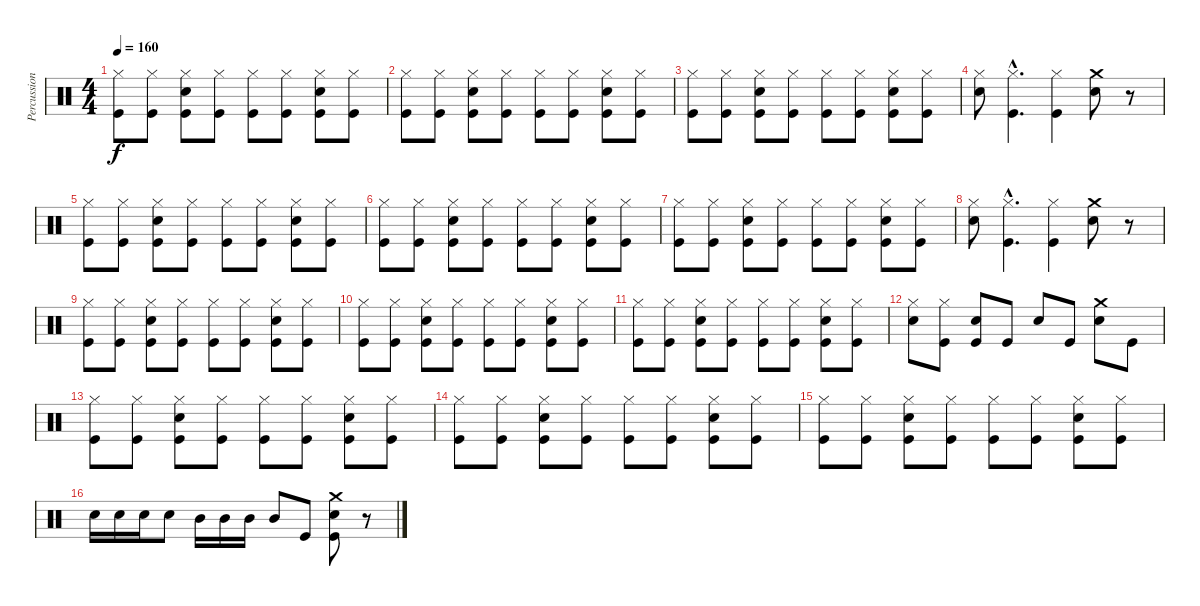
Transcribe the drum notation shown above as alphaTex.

\track ("Percussion" "Percussion") {instrument percussion}
\staff {score}
\articulation defaults
\ts (4 4)
\tempo 160
\clef neutral
\ks c
("Hi-Hat (closed)" "Kick (hit)").8{dy f} ("Hi-Hat (closed)" "Kick (hit)").8 ("Hi-Hat (closed)" "Snare (hit) 2" "Kick (hit)").8 ("Hi-Hat (closed)" "Kick (hit)").8 ("Hi-Hat (closed)" "Kick (hit)").8 ("Hi-Hat (closed)" "Kick (hit)").8 ("Hi-Hat (closed)" "Snare (hit) 2" "Kick (hit)").8 ("Hi-Hat (closed)" "Kick (hit)").8 |
("Hi-Hat (closed)" "Kick (hit)").8 ("Hi-Hat (closed)" "Kick (hit)").8 ("Hi-Hat (closed)" "Snare (hit) 2" "Kick (hit)").8 ("Hi-Hat (closed)" "Kick (hit)").8 ("Hi-Hat (closed)" "Kick (hit)").8 ("Hi-Hat (closed)" "Kick (hit)").8 ("Hi-Hat (closed)" "Snare (hit) 2" "Kick (hit)").8 ("Hi-Hat (closed)" "Kick (hit)").8 |
("Hi-Hat (closed)" "Kick (hit)").8 ("Hi-Hat (closed)" "Kick (hit)").8 ("Hi-Hat (closed)" "Snare (hit) 2" "Kick (hit)").8 ("Hi-Hat (closed)" "Kick (hit)").8 ("Hi-Hat (closed)" "Kick (hit)").8 ("Hi-Hat (closed)" "Kick (hit)").8 ("Hi-Hat (closed)" "Snare (hit) 2" "Kick (hit)").8 ("Hi-Hat (closed)" "Kick (hit)").8 |
("Hi-Hat (closed)" "Snare (hit) 2").8 ("Hi-Hat (closed)"{hac} "Kick (hit)"{hac}).4{d} ("Hi-Hat (closed)" "Kick (hit)").4 ("Crash medium (hit)" "Snare (hit) 2").8 r.8 |
("Hi-Hat (closed)" "Kick (hit)").8 ("Hi-Hat (closed)" "Kick (hit)").8 ("Hi-Hat (closed)" "Snare (hit) 2" "Kick (hit)").8 ("Hi-Hat (closed)" "Kick (hit)").8 ("Hi-Hat (closed)" "Kick (hit)").8 ("Hi-Hat (closed)" "Kick (hit)").8 ("Hi-Hat (closed)" "Snare (hit) 2" "Kick (hit)").8 ("Hi-Hat (closed)" "Kick (hit)").8 |
("Hi-Hat (closed)" "Kick (hit)").8 ("Hi-Hat (closed)" "Kick (hit)").8 ("Hi-Hat (closed)" "Snare (hit) 2" "Kick (hit)").8 ("Hi-Hat (closed)" "Kick (hit)").8 ("Hi-Hat (closed)" "Kick (hit)").8 ("Hi-Hat (closed)" "Kick (hit)").8 ("Hi-Hat (closed)" "Snare (hit) 2" "Kick (hit)").8 ("Hi-Hat (closed)" "Kick (hit)").8 |
("Hi-Hat (closed)" "Kick (hit)").8 ("Hi-Hat (closed)" "Kick (hit)").8 ("Hi-Hat (closed)" "Snare (hit) 2" "Kick (hit)").8 ("Hi-Hat (closed)" "Kick (hit)").8 ("Hi-Hat (closed)" "Kick (hit)").8 ("Hi-Hat (closed)" "Kick (hit)").8 ("Hi-Hat (closed)" "Snare (hit) 2" "Kick (hit)").8 ("Hi-Hat (closed)" "Kick (hit)").8 |
("Hi-Hat (closed)" "Snare (hit) 2").8 ("Hi-Hat (closed)"{hac} "Kick (hit)"{hac}).4{d} ("Hi-Hat (closed)" "Kick (hit)").4 ("Crash medium (hit)" "Snare (hit) 2").8 r.8 |
("Hi-Hat (closed)" "Kick (hit)").8 ("Hi-Hat (closed)" "Kick (hit)").8 ("Hi-Hat (closed)" "Snare (hit) 2" "Kick (hit)").8 ("Hi-Hat (closed)" "Kick (hit)").8 ("Hi-Hat (closed)" "Kick (hit)").8 ("Hi-Hat (closed)" "Kick (hit)").8 ("Hi-Hat (closed)" "Snare (hit) 2" "Kick (hit)").8 ("Hi-Hat (closed)" "Kick (hit)").8 |
("Hi-Hat (closed)" "Kick (hit)").8 ("Hi-Hat (closed)" "Kick (hit)").8 ("Hi-Hat (closed)" "Snare (hit) 2" "Kick (hit)").8 ("Hi-Hat (closed)" "Kick (hit)").8 ("Hi-Hat (closed)" "Kick (hit)").8 ("Hi-Hat (closed)" "Kick (hit)").8 ("Hi-Hat (closed)" "Snare (hit) 2" "Kick (hit)").8 ("Hi-Hat (closed)" "Kick (hit)").8 |
("Hi-Hat (closed)" "Kick (hit)").8 ("Hi-Hat (closed)" "Kick (hit)").8 ("Hi-Hat (closed)" "Snare (hit) 2" "Kick (hit)").8 ("Hi-Hat (closed)" "Kick (hit)").8 ("Hi-Hat (closed)" "Kick (hit)").8 ("Hi-Hat (closed)" "Kick (hit)").8 ("Hi-Hat (closed)" "Snare (hit) 2" "Kick (hit)").8 ("Hi-Hat (closed)" "Kick (hit)").8 |
("Hi-Hat (closed)" "Snare (hit) 2").8 ("Hi-Hat (closed)" "Kick (hit)").8 ("Snare (hit) 2" "Kick (hit)").8 "Kick (hit)".8 "Snare (hit) 2".8 "Kick (hit)".8 ("Crash medium (hit)" "Snare (hit) 2").8 "Kick (hit)".8 |
("Hi-Hat (closed)" "Kick (hit)").8 ("Hi-Hat (closed)" "Kick (hit)").8 ("Hi-Hat (closed)" "Snare (hit) 2" "Kick (hit)").8 ("Hi-Hat (closed)" "Kick (hit)").8 ("Hi-Hat (closed)" "Kick (hit)").8 ("Hi-Hat (closed)" "Kick (hit)").8 ("Hi-Hat (closed)" "Snare (hit) 2" "Kick (hit)").8 ("Hi-Hat (closed)" "Kick (hit)").8 |
("Hi-Hat (closed)" "Kick (hit)").8 ("Hi-Hat (closed)" "Kick (hit)").8 ("Hi-Hat (closed)" "Snare (hit) 2" "Kick (hit)").8 ("Hi-Hat (closed)" "Kick (hit)").8 ("Hi-Hat (closed)" "Kick (hit)").8 ("Hi-Hat (closed)" "Kick (hit)").8 ("Hi-Hat (closed)" "Snare (hit) 2" "Kick (hit)").8 ("Hi-Hat (closed)" "Kick (hit)").8 |
("Hi-Hat (closed)" "Kick (hit)").8 ("Hi-Hat (closed)" "Kick (hit)").8 ("Hi-Hat (closed)" "Snare (hit) 2" "Kick (hit)").8 ("Hi-Hat (closed)" "Kick (hit)").8 ("Hi-Hat (closed)" "Kick (hit)").8 ("Hi-Hat (closed)" "Kick (hit)").8 ("Hi-Hat (closed)" "Snare (hit) 2" "Kick (hit)").8 ("Hi-Hat (closed)" "Kick (hit)").8 |
"Snare (hit) 2".16 "Snare (hit) 2".16 "Snare (hit) 2".16 "Snare (hit) 2".8 "Mid Tom (hit)".16 "Mid Tom (hit)".16 "Mid Tom (hit)".16 "Mid Tom (hit)".8 "Kick (hit)".8 ("Crash medium (hit)" "Snare (hit) 2" "Kick (hit)").8 r.8
